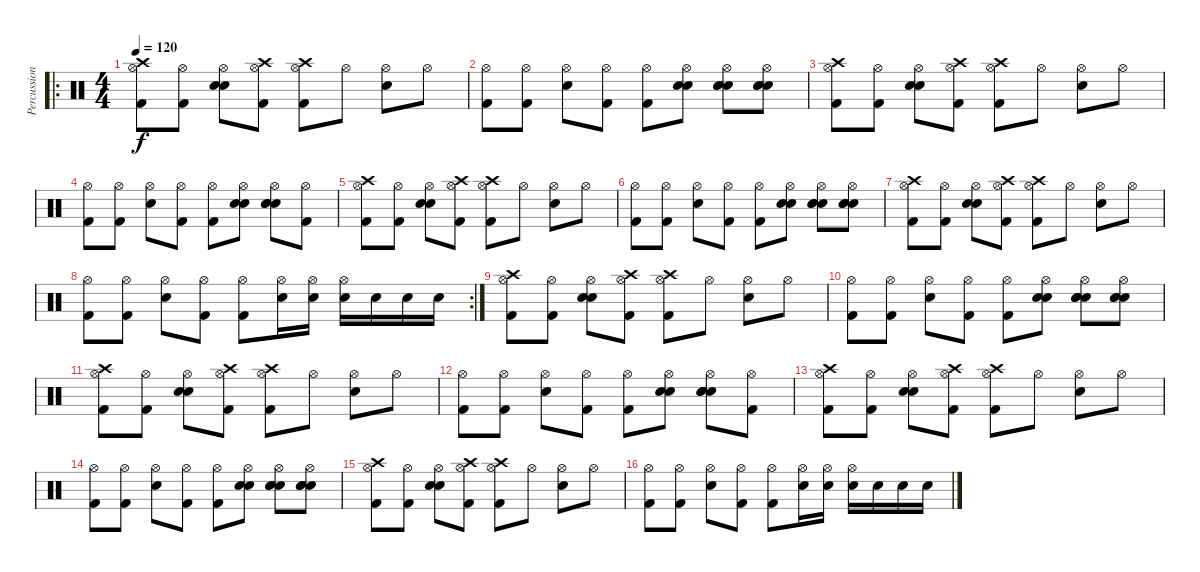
\track ("Percussion" "Percussion") {instrument percussion}
\staff {score}
\articulation defaults
\ro
\ts (4 4)
\tempo 120
\clef neutral
\ks c
("Hi-Hat (open)" "Kick (hit) 2" "Crash high (hit)").8{dy f} ("Hi-Hat (open)" "Kick (hit) 2").8 ("Hi-Hat (open)" "Electric Snare (hit)" "Electric Snare (hit)").8 ("Hi-Hat (open)" "Kick (hit) 2" "Crash high (hit)").8 ("Hi-Hat (open)" "Kick (hit) 2" "Crash high (hit)").8 "Hi-Hat (open)".8 ("Hi-Hat (open)" "Electric Snare (hit)").8 "Hi-Hat (open)".8 |
("Hi-Hat (open)" "Kick (hit) 2").8 ("Hi-Hat (open)" "Kick (hit) 2").8 ("Hi-Hat (open)" "Electric Snare (hit)").8 ("Hi-Hat (open)" "Kick (hit) 2").8 ("Hi-Hat (open)" "Kick (hit) 2").8 ("Hi-Hat (open)" "Electric Snare (hit)" "Electric Snare (hit)").8 ("Hi-Hat (open)" "Electric Snare (hit)" "Electric Snare (hit)" "Electric Snare (hit)").8 ("Hi-Hat (open)" "Electric Snare (hit)" "Electric Snare (hit)" "Electric Snare (hit)").8 |
("Hi-Hat (open)" "Kick (hit) 2" "Crash high (hit)").8 ("Hi-Hat (open)" "Kick (hit) 2").8 ("Hi-Hat (open)" "Electric Snare (hit)" "Electric Snare (hit)").8 ("Hi-Hat (open)" "Kick (hit) 2" "Crash high (hit)").8 ("Hi-Hat (open)" "Kick (hit) 2" "Crash high (hit)").8 "Hi-Hat (open)".8 ("Hi-Hat (open)" "Electric Snare (hit)").8 "Hi-Hat (open)".8 |
("Hi-Hat (open)" "Kick (hit) 2").8 ("Hi-Hat (open)" "Kick (hit) 2").8 ("Hi-Hat (open)" "Electric Snare (hit)").8 ("Hi-Hat (open)" "Kick (hit) 2").8 ("Hi-Hat (open)" "Kick (hit) 2").8 ("Hi-Hat (open)" "Electric Snare (hit)" "Electric Snare (hit)").8 ("Hi-Hat (open)" "Electric Snare (hit)" "Electric Snare (hit)" "Electric Snare (hit)").8 ("Hi-Hat (open)" "Kick (hit) 2").8 |
("Hi-Hat (open)" "Kick (hit) 2" "Crash high (hit)").8 ("Hi-Hat (open)" "Kick (hit) 2").8 ("Hi-Hat (open)" "Electric Snare (hit)" "Electric Snare (hit)").8 ("Hi-Hat (open)" "Kick (hit) 2" "Crash high (hit)").8 ("Hi-Hat (open)" "Kick (hit) 2" "Crash high (hit)").8 "Hi-Hat (open)".8 ("Hi-Hat (open)" "Electric Snare (hit)").8 "Hi-Hat (open)".8 |
("Hi-Hat (open)" "Kick (hit) 2").8 ("Hi-Hat (open)" "Kick (hit) 2").8 ("Hi-Hat (open)" "Electric Snare (hit)").8 ("Hi-Hat (open)" "Kick (hit) 2").8 ("Hi-Hat (open)" "Kick (hit) 2").8 ("Hi-Hat (open)" "Electric Snare (hit)" "Electric Snare (hit)").8 ("Hi-Hat (open)" "Electric Snare (hit)" "Electric Snare (hit)" "Electric Snare (hit)").8 ("Hi-Hat (open)" "Electric Snare (hit)" "Electric Snare (hit)" "Electric Snare (hit)").8 |
("Hi-Hat (open)" "Kick (hit) 2" "Crash high (hit)").8 ("Hi-Hat (open)" "Kick (hit) 2").8 ("Hi-Hat (open)" "Electric Snare (hit)" "Electric Snare (hit)").8 ("Hi-Hat (open)" "Kick (hit) 2" "Crash high (hit)").8 ("Hi-Hat (open)" "Kick (hit) 2" "Crash high (hit)").8 "Hi-Hat (open)".8 ("Hi-Hat (open)" "Electric Snare (hit)").8 "Hi-Hat (open)".8 |
\rc 2
("Hi-Hat (open)" "Kick (hit) 2").8 ("Hi-Hat (open)" "Kick (hit) 2").8 ("Hi-Hat (open)" "Electric Snare (hit)").8 ("Hi-Hat (open)" "Kick (hit) 2").8 ("Hi-Hat (open)" "Kick (hit) 2").8 ("Hi-Hat (open)" "Electric Snare (hit)").16 ("Hi-Hat (open)" "Electric Snare (hit)").16 ("Hi-Hat (open)" "Electric Snare (hit)").16 "Electric Snare (hit)".16 "Electric Snare (hit)".16 "Electric Snare (hit)".16 |
("Hi-Hat (open)" "Kick (hit) 2" "Crash high (hit)").8 ("Hi-Hat (open)" "Kick (hit) 2").8 ("Hi-Hat (open)" "Electric Snare (hit)" "Electric Snare (hit)").8 ("Hi-Hat (open)" "Kick (hit) 2" "Crash high (hit)").8 ("Hi-Hat (open)" "Kick (hit) 2" "Crash high (hit)").8 "Hi-Hat (open)".8 ("Hi-Hat (open)" "Electric Snare (hit)").8 "Hi-Hat (open)".8 |
("Hi-Hat (open)" "Kick (hit) 2").8 ("Hi-Hat (open)" "Kick (hit) 2").8 ("Hi-Hat (open)" "Electric Snare (hit)").8 ("Hi-Hat (open)" "Kick (hit) 2").8 ("Hi-Hat (open)" "Kick (hit) 2").8 ("Hi-Hat (open)" "Electric Snare (hit)" "Electric Snare (hit)").8 ("Hi-Hat (open)" "Electric Snare (hit)" "Electric Snare (hit)" "Electric Snare (hit)").8 ("Hi-Hat (open)" "Electric Snare (hit)" "Electric Snare (hit)" "Electric Snare (hit)").8 |
("Hi-Hat (open)" "Kick (hit) 2" "Crash high (hit)").8 ("Hi-Hat (open)" "Kick (hit) 2").8 ("Hi-Hat (open)" "Electric Snare (hit)" "Electric Snare (hit)").8 ("Hi-Hat (open)" "Kick (hit) 2" "Crash high (hit)").8 ("Hi-Hat (open)" "Kick (hit) 2" "Crash high (hit)").8 "Hi-Hat (open)".8 ("Hi-Hat (open)" "Electric Snare (hit)").8 "Hi-Hat (open)".8 |
("Hi-Hat (open)" "Kick (hit) 2").8 ("Hi-Hat (open)" "Kick (hit) 2").8 ("Hi-Hat (open)" "Electric Snare (hit)").8 ("Hi-Hat (open)" "Kick (hit) 2").8 ("Hi-Hat (open)" "Kick (hit) 2").8 ("Hi-Hat (open)" "Electric Snare (hit)" "Electric Snare (hit)").8 ("Hi-Hat (open)" "Electric Snare (hit)" "Electric Snare (hit)" "Electric Snare (hit)").8 ("Hi-Hat (open)" "Kick (hit) 2").8 |
("Hi-Hat (open)" "Kick (hit) 2" "Crash high (hit)").8 ("Hi-Hat (open)" "Kick (hit) 2").8 ("Hi-Hat (open)" "Electric Snare (hit)" "Electric Snare (hit)").8 ("Hi-Hat (open)" "Kick (hit) 2" "Crash high (hit)").8 ("Hi-Hat (open)" "Kick (hit) 2" "Crash high (hit)").8 "Hi-Hat (open)".8 ("Hi-Hat (open)" "Electric Snare (hit)").8 "Hi-Hat (open)".8 |
("Hi-Hat (open)" "Kick (hit) 2").8 ("Hi-Hat (open)" "Kick (hit) 2").8 ("Hi-Hat (open)" "Electric Snare (hit)").8 ("Hi-Hat (open)" "Kick (hit) 2").8 ("Hi-Hat (open)" "Kick (hit) 2").8 ("Hi-Hat (open)" "Electric Snare (hit)" "Electric Snare (hit)").8 ("Hi-Hat (open)" "Electric Snare (hit)" "Electric Snare (hit)" "Electric Snare (hit)").8 ("Hi-Hat (open)" "Electric Snare (hit)" "Electric Snare (hit)" "Electric Snare (hit)").8 |
("Hi-Hat (open)" "Kick (hit) 2" "Crash high (hit)").8 ("Hi-Hat (open)" "Kick (hit) 2").8 ("Hi-Hat (open)" "Electric Snare (hit)" "Electric Snare (hit)").8 ("Hi-Hat (open)" "Kick (hit) 2" "Crash high (hit)").8 ("Hi-Hat (open)" "Kick (hit) 2" "Crash high (hit)").8 "Hi-Hat (open)".8 ("Hi-Hat (open)" "Electric Snare (hit)").8 "Hi-Hat (open)".8 |
("Hi-Hat (open)" "Kick (hit) 2").8 ("Hi-Hat (open)" "Kick (hit) 2").8 ("Hi-Hat (open)" "Electric Snare (hit)").8 ("Hi-Hat (open)" "Kick (hit) 2").8 ("Hi-Hat (open)" "Kick (hit) 2").8 ("Hi-Hat (open)" "Electric Snare (hit)").16 ("Hi-Hat (open)" "Electric Snare (hit)").16 ("Hi-Hat (open)" "Electric Snare (hit)").16 "Electric Snare (hit)".16 "Electric Snare (hit)".16 "Electric Snare (hit)".16
